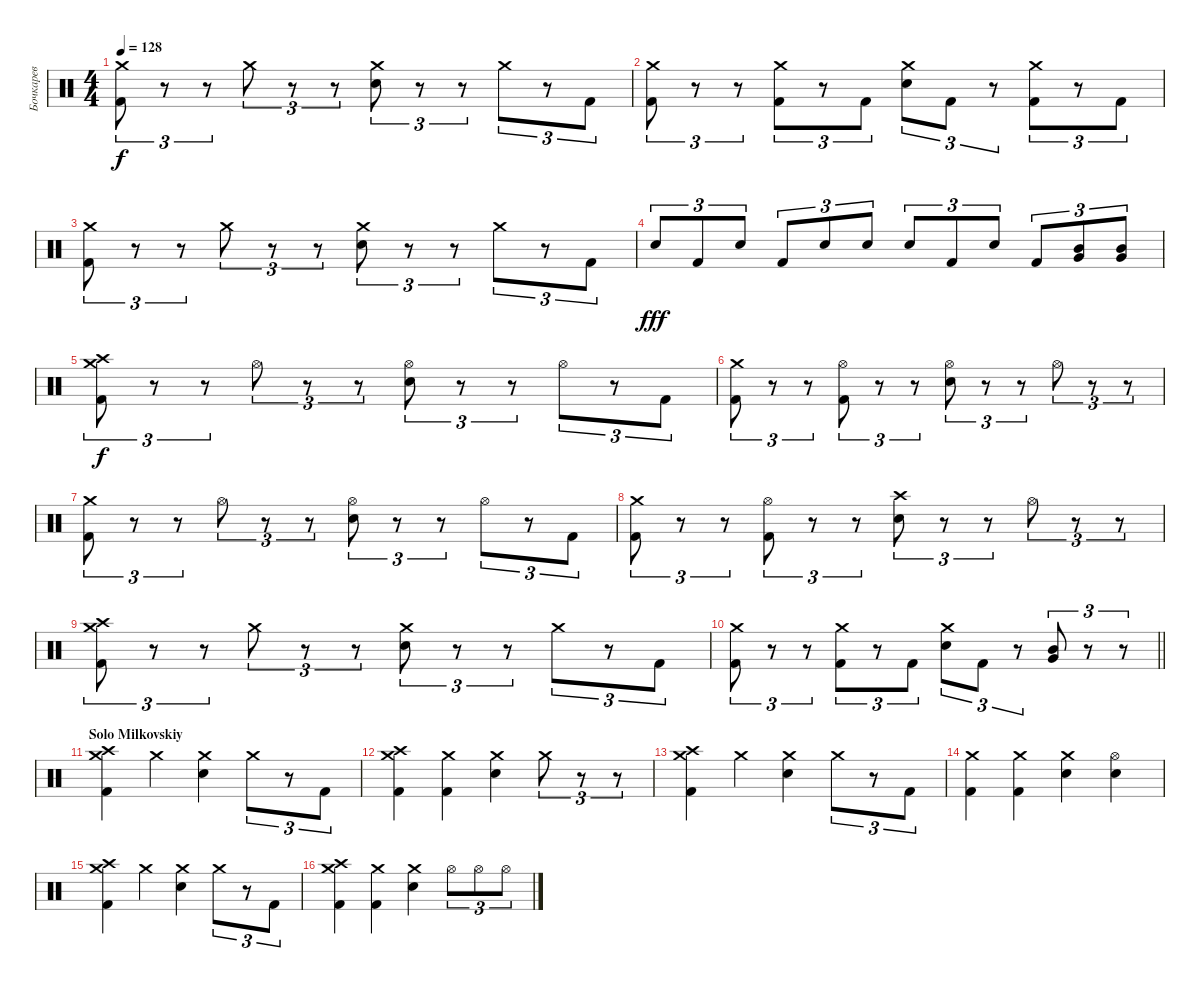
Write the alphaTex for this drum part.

\track ("Бочкарев" "Бочкарев") {instrument percussion}
\staff
\articulation defaults
\ts (4 4)
\tempo 128
\clef neutral
\ks c
("Crash medium (hit)" "Kick (hit) 2").8{tu (3 2) dy f} r.8{tu (3 2)} r.8{tu (3 2)} "Crash medium (hit)".8{tu (3 2)} r.8{tu (3 2)} r.8{tu (3 2)} ("Crash medium (hit)" "Electric Snare (hit)").8{tu (3 2)} r.8{tu (3 2)} r.8{tu (3 2)} "Crash medium (hit)".8{tu (3 2)} r.8{tu (3 2)} "Kick (hit) 2".8{tu (3 2)} |
("Crash medium (hit)" "Kick (hit) 2").8{tu (3 2)} r.8{tu (3 2)} r.8{tu (3 2)} ("Crash medium (hit)" "Kick (hit) 2").8{tu (3 2)} r.8{tu (3 2)} "Kick (hit) 2".8{tu (3 2)} ("Crash medium (hit)" "Electric Snare (hit)").8{tu (3 2)} "Kick (hit) 2".8{tu (3 2)} r.8{tu (3 2)} ("Crash medium (hit)" "Kick (hit) 2").8{tu (3 2)} r.8{tu (3 2)} "Kick (hit) 2".8{tu (3 2)} |
("Crash medium (hit)" "Kick (hit) 2").8{tu (3 2)} r.8{tu (3 2)} r.8{tu (3 2)} "Crash medium (hit)".8{tu (3 2)} r.8{tu (3 2)} r.8{tu (3 2)} ("Crash medium (hit)" "Electric Snare (hit)").8{tu (3 2)} r.8{tu (3 2)} r.8{tu (3 2)} "Crash medium (hit)".8{tu (3 2)} r.8{tu (3 2)} "Kick (hit) 2".8{tu (3 2)} |
"Electric Snare (hit)".8{tu (3 2) dy fff} "Kick (hit) 2".8{tu (3 2)} "Electric Snare (hit)".8{tu (3 2)} "Kick (hit) 2".8{tu (3 2)} "Electric Snare (hit)".8{tu (3 2)} "Electric Snare (hit)".8{tu (3 2)} "Electric Snare (hit)".8{tu (3 2)} "Kick (hit) 2".8{tu (3 2)} "Electric Snare (hit)".8{tu (3 2)} "Kick (hit) 2".8{tu (3 2)} ("Very Low Tom (hit)" "Mid Tom (hit)").8{tu (3 2)} ("Very Low Tom (hit)" "Mid Tom (hit)").8{tu (3 2)} |
("Crash high (hit)" "Crash medium (hit)" "Kick (hit) 2").8{tu (3 2) dy f} r.8{tu (3 2)} r.8{tu (3 2)} "Hi-Hat (open)".8{tu (3 2)} r.8{tu (3 2)} r.8{tu (3 2)} ("Hi-Hat (open)" "Electric Snare (hit)").8{tu (3 2)} r.8{tu (3 2)} r.8{tu (3 2)} "Hi-Hat (open)".8{tu (3 2)} r.8{tu (3 2)} "Kick (hit) 2".8{tu (3 2)} |
("Crash medium (hit)" "Kick (hit) 2").8{tu (3 2)} r.8{tu (3 2)} r.8{tu (3 2)} ("Hi-Hat (open)" "Kick (hit) 2").8{tu (3 2)} r.8{tu (3 2)} r.8{tu (3 2)} ("Hi-Hat (open)" "Electric Snare (hit)").8{tu (3 2)} r.8{tu (3 2)} r.8{tu (3 2)} "Hi-Hat (open)".8{tu (3 2)} r.8{tu (3 2)} r.8{tu (3 2)} |
("Crash medium (hit)" "Kick (hit) 2").8{tu (3 2)} r.8{tu (3 2)} r.8{tu (3 2)} "Hi-Hat (open)".8{tu (3 2)} r.8{tu (3 2)} r.8{tu (3 2)} ("Hi-Hat (open)" "Electric Snare (hit)").8{tu (3 2)} r.8{tu (3 2)} r.8{tu (3 2)} "Hi-Hat (open)".8{tu (3 2)} r.8{tu (3 2)} "Kick (hit) 2".8{tu (3 2)} |
("Crash medium (hit)" "Kick (hit) 2").8{tu (3 2)} r.8{tu (3 2)} r.8{tu (3 2)} ("Hi-Hat (open)" "Kick (hit) 2").8{tu (3 2)} r.8{tu (3 2)} r.8{tu (3 2)} ("Crash high (hit)" "Electric Snare (hit)").8{tu (3 2)} r.8{tu (3 2)} r.8{tu (3 2)} "Hi-Hat (open)".8{tu (3 2)} r.8{tu (3 2)} r.8{tu (3 2)} |
("Crash high (hit)" "Crash medium (hit)" "Kick (hit) 2").8{tu (3 2)} r.8{tu (3 2)} r.8{tu (3 2)} "Crash medium (hit)".8{tu (3 2)} r.8{tu (3 2)} r.8{tu (3 2)} ("Crash medium (hit)" "Electric Snare (hit)").8{tu (3 2)} r.8{tu (3 2)} r.8{tu (3 2)} "Crash medium (hit)".8{tu (3 2)} r.8{tu (3 2)} "Kick (hit) 2".8{tu (3 2)} |
\barLineRight lightlight
("Crash medium (hit)" "Kick (hit) 2").8{tu (3 2)} r.8{tu (3 2)} r.8{tu (3 2)} ("Crash medium (hit)" "Kick (hit) 2").8{tu (3 2)} r.8{tu (3 2)} "Kick (hit) 2".8{tu (3 2)} ("Crash medium (hit)" "Electric Snare (hit)").8{tu (3 2)} "Kick (hit) 2".8{tu (3 2)} r.8{tu (3 2)} ("Mid Tom (hit)" "Very Low Tom (hit)").8{tu (3 2)} r.8{tu (3 2)} r.8{tu (3 2)} |
\section ("" "Solo Milkovskiy")
("Crash high (hit)" "Crash medium (hit)" "Kick (hit) 2").4 "Crash medium (hit)".4 ("Crash medium (hit)" "Electric Snare (hit)").4 "Crash medium (hit)".8{tu (3 2)} r.8{tu (3 2)} "Kick (hit) 2".8{tu (3 2)} |
("Crash high (hit)" "Crash medium (hit)" "Kick (hit) 2").4 ("Crash medium (hit)" "Kick (hit) 2").4 ("Crash medium (hit)" "Electric Snare (hit)").4 "Crash medium (hit)".8{tu (3 2)} r.8{tu (3 2)} r.8{tu (3 2)} |
("Crash high (hit)" "Crash medium (hit)" "Kick (hit) 2").4 "Crash medium (hit)".4 ("Crash medium (hit)" "Electric Snare (hit)").4 "Crash medium (hit)".8{tu (3 2)} r.8{tu (3 2)} "Kick (hit) 2".8{tu (3 2)} |
("Crash medium (hit)" "Kick (hit) 2").4 ("Crash medium (hit)" "Kick (hit) 2").4 ("Crash medium (hit)" "Electric Snare (hit)").4 ("Hi-Hat (open)" "Electric Snare (hit)").4 |
("Crash high (hit)" "Crash medium (hit)" "Kick (hit) 2").4 "Crash medium (hit)".4 ("Crash medium (hit)" "Electric Snare (hit)").4 "Crash medium (hit)".8{tu (3 2)} r.8{tu (3 2)} "Kick (hit) 2".8{tu (3 2)} |
("Crash high (hit)" "Crash medium (hit)" "Kick (hit) 2").4 ("Crash medium (hit)" "Kick (hit) 2").4 ("Crash medium (hit)" "Electric Snare (hit)").4 "Hi-Hat (open)".8{tu (3 2)} "Hi-Hat (open)".8{tu (3 2)} "Hi-Hat (open)".8{tu (3 2)}
